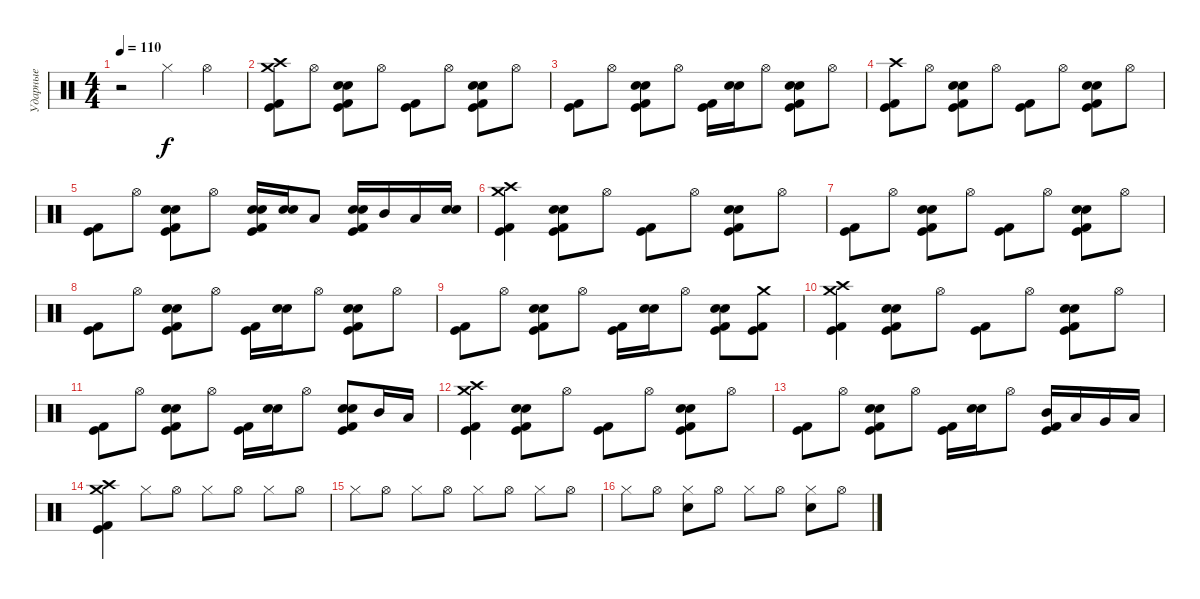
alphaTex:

\track ("Ударные" "Ударные") {instrument percussion}
\staff {score}
\articulation defaults
\ts (4 4)
\tempo 110
\clef neutral
\ks c
r.2{dy f} "Hi-Hat (closed)".4 "Hi-Hat (open)".4 |
("Crash high (hit)" "Kick (hit)" "Kick (hit) 2" "Crash medium (hit)").8 "Hi-Hat (open)".8 ("Snare (hit) 2" "Electric Snare (hit)" "Kick (hit)" "Kick (hit) 2").8 "Hi-Hat (open)".8 ("Kick (hit) 2" "Kick (hit)").8 "Hi-Hat (open)".8 ("Snare (hit) 2" "Electric Snare (hit)" "Kick (hit)" "Kick (hit) 2").8 "Hi-Hat (open)".8 |
("Kick (hit) 2" "Kick (hit)").8 "Hi-Hat (open)".8 ("Snare (hit) 2" "Electric Snare (hit)" "Kick (hit)" "Kick (hit) 2").8 "Hi-Hat (open)".8 ("Kick (hit) 2" "Kick (hit)").16 ("Snare (hit) 2" "Electric Snare (hit)").16 "Hi-Hat (open)".8 ("Snare (hit) 2" "Electric Snare (hit)" "Kick (hit)" "Kick (hit) 2").8 "Hi-Hat (open)".8 |
("Crash high (hit)" "Kick (hit) 2" "Kick (hit)").8 "Hi-Hat (open)".8 ("Snare (hit) 2" "Electric Snare (hit)" "Kick (hit)" "Kick (hit) 2").8 "Hi-Hat (open)".8 ("Kick (hit) 2" "Kick (hit)").8 "Hi-Hat (open)".8 ("Snare (hit) 2" "Electric Snare (hit)" "Kick (hit)" "Kick (hit) 2").8 "Hi-Hat (open)".8 |
("Kick (hit) 2" "Kick (hit)").8 "Hi-Hat (open)".8 ("Snare (hit) 2" "Electric Snare (hit)" "Kick (hit)" "Kick (hit) 2").8 "Hi-Hat (open)".8 ("Snare (hit) 2" "Electric Snare (hit)" "Kick (hit)" "Kick (hit) 2").16 ("Snare (hit) 2" "Electric Snare (hit)").16 "Low Floor Tom (hit)".8 ("Snare (hit) 2" "Electric Snare (hit)" "Kick (hit)" "Kick (hit) 2").16 "Mid Tom (hit)".16 "Low Tom (hit)".16 ("Snare (hit) 2" "Electric Snare (hit)").16 |
("Crash high (hit)" "Kick (hit) 2" "Crash medium (hit)" "Kick (hit)").4 ("Snare (hit) 2" "Electric Snare (hit)" "Kick (hit)" "Kick (hit) 2").8 "Hi-Hat (open)".8 ("Kick (hit) 2" "Kick (hit)").8 "Hi-Hat (open)".8 ("Snare (hit) 2" "Electric Snare (hit)" "Kick (hit)" "Kick (hit) 2").8 "Hi-Hat (open)".8 |
("Kick (hit)" "Kick (hit) 2").8 "Hi-Hat (open)".8 ("Snare (hit) 2" "Electric Snare (hit)" "Kick (hit)" "Kick (hit) 2").8 "Hi-Hat (open)".8 ("Kick (hit) 2" "Kick (hit)").8 "Hi-Hat (open)".8 ("Snare (hit) 2" "Electric Snare (hit)" "Kick (hit)" "Kick (hit) 2").8 "Hi-Hat (open)".8 |
("Kick (hit) 2" "Kick (hit)").8 "Hi-Hat (open)".8 ("Snare (hit) 2" "Electric Snare (hit)" "Kick (hit)" "Kick (hit) 2").8 "Hi-Hat (open)".8 ("Kick (hit) 2" "Kick (hit)").16 ("Snare (hit) 2" "Electric Snare (hit)").16 "Hi-Hat (open)".8 ("Snare (hit) 2" "Electric Snare (hit)" "Kick (hit)" "Kick (hit) 2").8 "Hi-Hat (open)".8 |
("Kick (hit) 2" "Kick (hit)").8 "Hi-Hat (open)".8 ("Snare (hit) 2" "Electric Snare (hit)" "Kick (hit)" "Kick (hit) 2").8 "Hi-Hat (open)".8 ("Kick (hit) 2" "Kick (hit)").16 ("Snare (hit) 2" "Electric Snare (hit)").16 "Hi-Hat (open)".8 ("Snare (hit) 2" "Electric Snare (hit)" "Kick (hit)" "Kick (hit) 2").8 ("Crash medium (hit)" "Kick (hit)" "Kick (hit) 2").8 |
("Crash high (hit)" "Kick (hit) 2" "Crash medium (hit)" "Kick (hit)").4 ("Snare (hit) 2" "Electric Snare (hit)" "Kick (hit)" "Kick (hit) 2").8 "Hi-Hat (open)".8 ("Kick (hit) 2" "Kick (hit)").8 "Hi-Hat (open)".8 ("Snare (hit) 2" "Electric Snare (hit)" "Kick (hit)" "Kick (hit) 2").8 "Hi-Hat (open)".8 |
("Kick (hit) 2" "Kick (hit)").8 "Hi-Hat (open)".8 ("Snare (hit) 2" "Electric Snare (hit)" "Kick (hit)" "Kick (hit) 2").8 "Hi-Hat (open)".8 ("Kick (hit) 2" "Kick (hit)").16 ("Snare (hit) 2" "Electric Snare (hit)").16 "Hi-Hat (open)".8 ("Snare (hit) 2" "Electric Snare (hit)" "Kick (hit)" "Kick (hit) 2").8 "Mid Tom (hit)".16 "Low Tom (hit)".16 |
("Crash high (hit)" "Kick (hit) 2" "Crash medium (hit)" "Kick (hit)").4 ("Snare (hit) 2" "Electric Snare (hit)" "Kick (hit)" "Kick (hit) 2").8 "Hi-Hat (open)".8 ("Kick (hit) 2" "Kick (hit)").8 "Hi-Hat (open)".8 ("Snare (hit) 2" "Electric Snare (hit)" "Kick (hit)" "Kick (hit) 2").8 "Hi-Hat (open)".8 |
("Kick (hit) 2" "Kick (hit)").8 "Hi-Hat (open)".8 ("Snare (hit) 2" "Electric Snare (hit)" "Kick (hit)" "Kick (hit) 2").8 "Hi-Hat (open)".8 ("Kick (hit) 2" "Kick (hit)").16 ("Snare (hit) 2" "Electric Snare (hit)").16 "Hi-Hat (open)".8 ("Mid Tom (hit)" "Kick (hit)" "Kick (hit) 2").16 "Low Tom (hit)".16 "Very Low Tom (hit)".16 "Low Floor Tom (hit)".16 |
("Crash high (hit)" "Kick (hit)" "Kick (hit) 2" "Crash medium (hit)").4 "Hi-Hat (closed)".8 "Hi-Hat (open)".8 "Hi-Hat (closed)".8 "Hi-Hat (open)".8 "Hi-Hat (closed)".8 "Hi-Hat (open)".8 |
"Hi-Hat (closed)".8 "Hi-Hat (open)".8 "Hi-Hat (closed)".8 "Hi-Hat (open)".8 "Hi-Hat (closed)".8 "Hi-Hat (open)".8 "Hi-Hat (closed)".8 "Hi-Hat (open)".8 |
"Hi-Hat (closed)".8 "Hi-Hat (open)".8 ("Hi-Hat (closed)" "Electric Snare (hit)").8 "Hi-Hat (open)".8 "Hi-Hat (closed)".8 "Hi-Hat (open)".8 ("Hi-Hat (closed)" "Electric Snare (hit)").8 "Hi-Hat (open)".8
